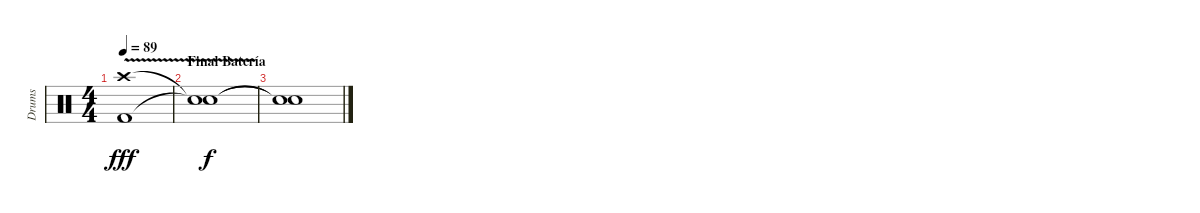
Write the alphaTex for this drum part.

\track ("Drums" "Drums") {instrument percussion}
\staff {score}
\articulation defaults
\ts (4 4)
\tempo 89
\clef neutral
\ks c
("Crash high (hit)"{v} "Kick (hit) 2"{v}).1{bd 60 dy fff} |
\section ("" "Final Batería")
("Snare (hit)"{t} "Snare (hit)"{t}).1{dy f} |
("Snare (hit)"{t} "Snare (hit)"{t}).1
